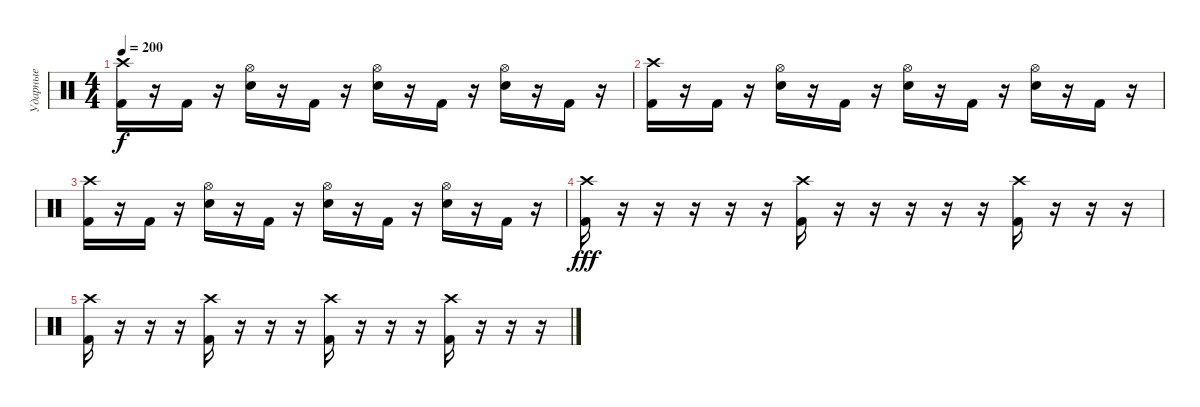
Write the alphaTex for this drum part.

\track ("Ударные" "Ударные") {instrument percussion}
\staff {score}
\articulation defaults
\ts (4 4)
\tempo 200
\clef neutral
\ks c
("Crash high (hit)" "Kick (hit) 2").16{dy f} r.16 "Kick (hit) 2".16 r.16 ("Hi-Hat (open)" "Electric Snare (hit)").16 r.16 "Kick (hit) 2".16 r.16 ("Hi-Hat (open)" "Electric Snare (hit)").16 r.16 "Kick (hit) 2".16 r.16 ("Hi-Hat (open)" "Electric Snare (hit)").16 r.16 "Kick (hit) 2".16 r.16 |
("Crash high (hit)" "Kick (hit) 2").16 r.16 "Kick (hit) 2".16 r.16 ("Hi-Hat (open)" "Electric Snare (hit)").16 r.16 "Kick (hit) 2".16 r.16 ("Hi-Hat (open)" "Electric Snare (hit)").16 r.16 "Kick (hit) 2".16 r.16 ("Hi-Hat (open)" "Electric Snare (hit)").16 r.16 "Kick (hit) 2".16 r.16 |
("Crash high (hit)" "Kick (hit) 2").16 r.16 "Kick (hit) 2".16 r.16 ("Hi-Hat (open)" "Electric Snare (hit)").16 r.16 "Kick (hit) 2".16 r.16 ("Hi-Hat (open)" "Electric Snare (hit)").16 r.16 "Kick (hit) 2".16 r.16 ("Hi-Hat (open)" "Electric Snare (hit)").16 r.16 "Kick (hit) 2".16 r.16 |
("Crash high (hit)" "Kick (hit) 2").16{dy fff} r.16 r.16 r.16 r.16 r.16 ("Crash high (hit)" "Kick (hit) 2").16 r.16 r.16 r.16 r.16 r.16 ("Crash high (hit)" "Kick (hit) 2").16 r.16 r.16 r.16 |
("Crash high (hit)" "Kick (hit) 2").16 r.16 r.16 r.16 ("Crash high (hit)" "Kick (hit) 2").16 r.16 r.16 r.16 ("Crash high (hit)" "Kick (hit) 2").16 r.16 r.16 r.16 ("Crash high (hit)" "Kick (hit) 2").16 r.16 r.16 r.16
